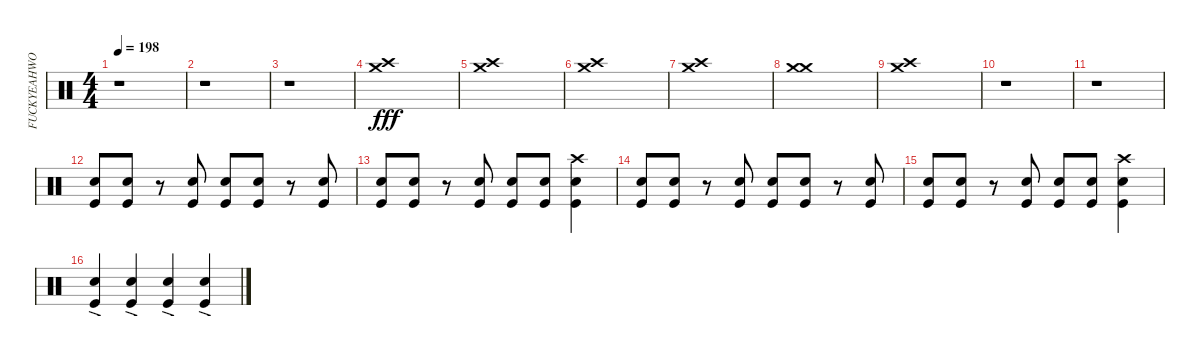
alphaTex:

\track ("FUCKYEAHWOOTDAVEMACKINTOSH!(Percussion)" "FUCKYEAHWO") {instrument percussion}
\staff {score}
\articulation defaults
\ts (4 4)
\tempo 198
\clef neutral
\ks c
r.1{dy fff} |
r.1 |
r.1 |
("Crash medium (hit)" "Crash high (hit)").1 |
("Crash high (hit)" "Crash medium (hit)").1 |
("Crash high (hit)" "Crash medium (hit)").1 |
("Crash high (hit)" "Crash medium (hit)").1 |
("Crash medium (hit)" "Crash medium (hit)").1 |
("Crash high (hit)" "Crash medium (hit)").1 |
r.1 |
r.1 |
("Kick (hit)" "Snare (hit) 2").8 ("Snare (hit) 2" "Kick (hit)").8 r.8 ("Snare (hit) 2" "Kick (hit)").8 ("Kick (hit)" "Snare (hit) 2").8 ("Snare (hit) 2" "Kick (hit)").8 r.8 ("Snare (hit) 2" "Kick (hit)").8 |
("Snare (hit) 2" "Kick (hit)").8 ("Snare (hit) 2" "Kick (hit)").8 r.8 ("Snare (hit) 2" "Kick (hit)").8 ("Snare (hit) 2" "Kick (hit)").8 ("Snare (hit) 2" "Kick (hit)").8 ("Snare (hit) 2" "Crash high (hit)" "Kick (hit)").4 |
("Snare (hit) 2" "Kick (hit)").8 ("Snare (hit) 2" "Kick (hit)").8 r.8 ("Snare (hit) 2" "Kick (hit)").8 ("Snare (hit) 2" "Kick (hit)").8 ("Snare (hit) 2" "Kick (hit)").8 r.8 ("Snare (hit) 2" "Kick (hit)").8 |
("Snare (hit) 2" "Kick (hit)").8 ("Snare (hit) 2" "Kick (hit)").8 r.8 ("Snare (hit) 2" "Kick (hit)").8 ("Snare (hit) 2" "Kick (hit)").8 ("Snare (hit) 2" "Kick (hit)").8 ("Snare (hit) 2" "Crash high (hit)" "Kick (hit)").4 |
("Kick (hit)" "Snare (hit) 2"{ac}).4 ("Kick (hit)" "Snare (hit) 2"{ac}).4 ("Snare (hit) 2"{ac} "Kick (hit)").4 ("Kick (hit)" "Snare (hit) 2"{ac}).4
